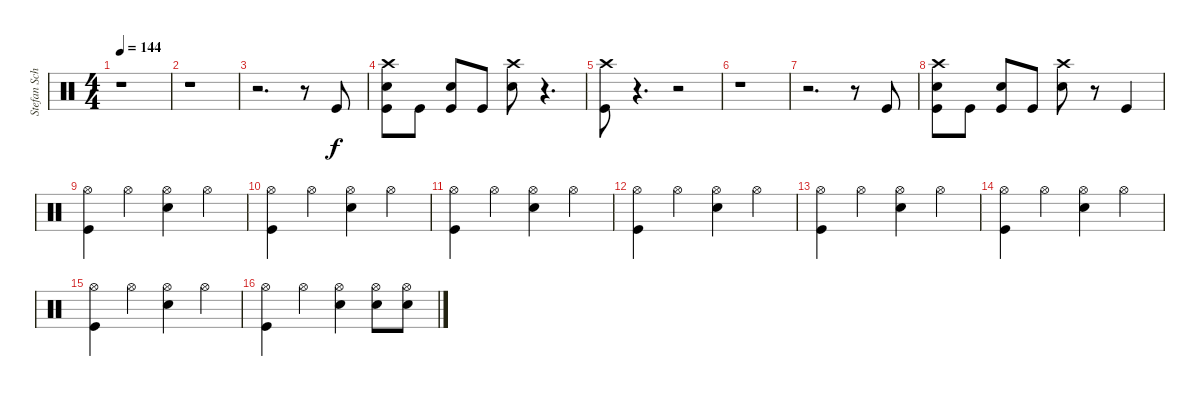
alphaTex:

\track ("Stefan Schwarzmann" "Stefan Sch") {instrument percussion}
\staff {score}
\articulation defaults
\ts (4 4)
\tempo 144
\clef neutral
\ks c
r.1{dy f} |
r.1 |
r.2{d} r.8 "Kick (hit)".8 |
("Snare (hit) 2" "Kick (hit)" "Crash high (hit)").8 "Kick (hit)".8 ("Snare (hit) 2" "Kick (hit)").8 "Kick (hit)".8 ("Snare (hit) 2" "Crash high (hit)").8 r.4{d} |
("Crash high (hit)" "Kick (hit)").8 r.4{d} r.2 |
r.1 |
r.2{d} r.8 "Kick (hit)".8 |
("Snare (hit) 2" "Kick (hit)" "Crash high (hit)").8 "Kick (hit)".8 ("Snare (hit) 2" "Kick (hit)").8 "Kick (hit)".8 ("Snare (hit) 2" "Crash high (hit)").8 r.8 "Kick (hit)".4 |
("Kick (hit)" "Hi-Hat (open)").4 "Hi-Hat (open)".4 ("Snare (hit) 2" "Hi-Hat (open)").4 "Hi-Hat (open)".4 |
("Kick (hit)" "Hi-Hat (open)").4 "Hi-Hat (open)".4 ("Snare (hit) 2" "Hi-Hat (open)").4 "Hi-Hat (open)".4 |
("Kick (hit)" "Hi-Hat (open)").4 "Hi-Hat (open)".4 ("Snare (hit) 2" "Hi-Hat (open)").4 "Hi-Hat (open)".4 |
("Kick (hit)" "Hi-Hat (open)").4 "Hi-Hat (open)".4 ("Snare (hit) 2" "Hi-Hat (open)").4 "Hi-Hat (open)".4 |
("Kick (hit)" "Hi-Hat (open)").4 "Hi-Hat (open)".4 ("Snare (hit) 2" "Hi-Hat (open)").4 "Hi-Hat (open)".4 |
("Kick (hit)" "Hi-Hat (open)").4 "Hi-Hat (open)".4 ("Snare (hit) 2" "Hi-Hat (open)").4 "Hi-Hat (open)".4 |
("Kick (hit)" "Hi-Hat (open)").4 "Hi-Hat (open)".4 ("Snare (hit) 2" "Hi-Hat (open)").4 "Hi-Hat (open)".4 |
("Kick (hit)" "Hi-Hat (open)").4 "Hi-Hat (open)".4 ("Snare (hit) 2" "Hi-Hat (open)").4 ("Snare (hit) 2" "Hi-Hat (open)").8 ("Snare (hit) 2" "Hi-Hat (open)").8
